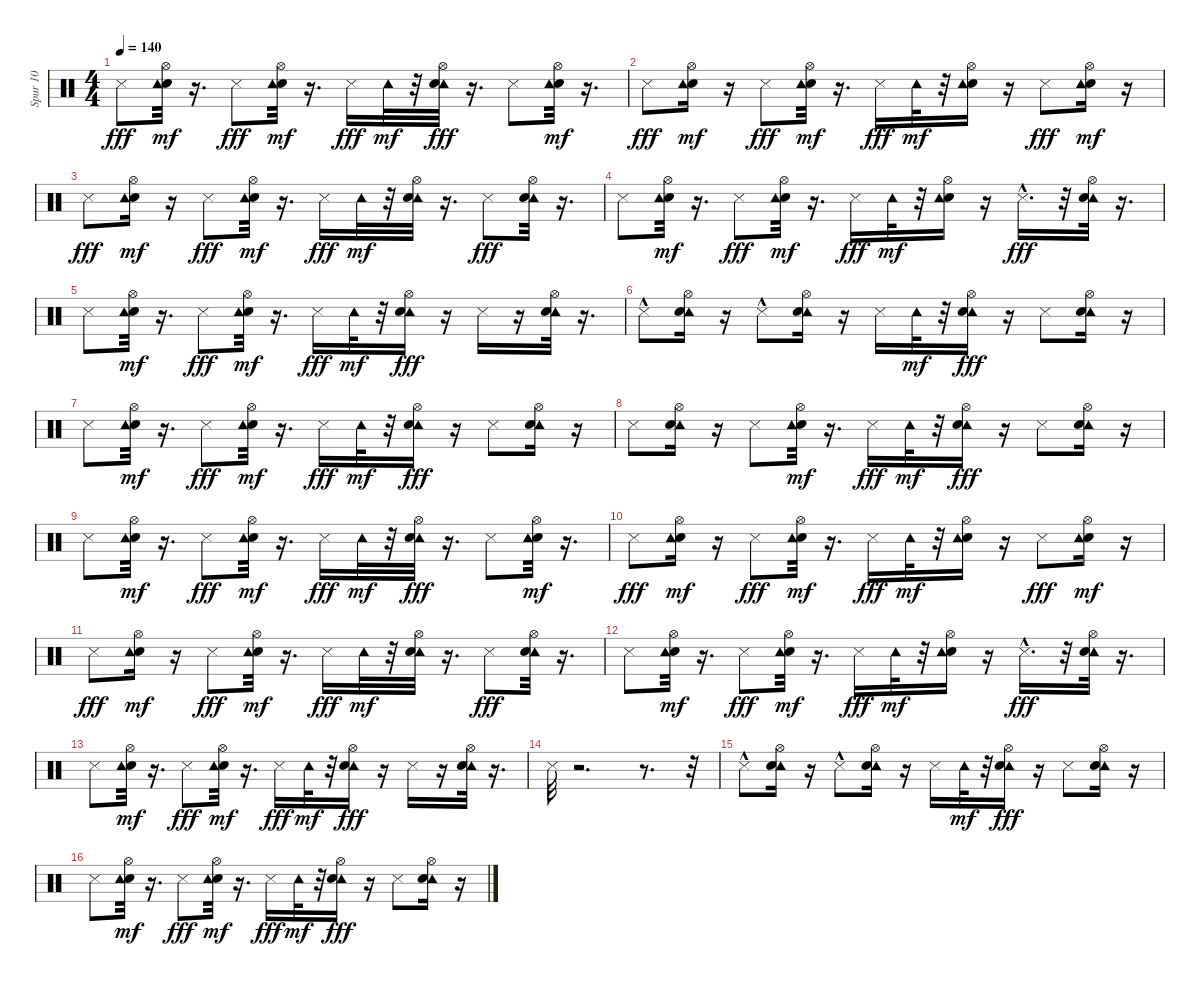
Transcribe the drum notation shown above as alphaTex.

\track ("Spur 10" "Spur 10") {instrument percussion}
\staff {score}
\articulation defaults
\ts (4 4)
\tempo 140
\clef neutral
\ks c "Metronome (hit)".8{dy fff}
("Snare (hit)" "Hi-Hat (open)" "Tambourine (hit)").32{dy mf} r.16{d} "Metronome (hit)".8{dy fff} ("Hi-Hat (open)" "Snare (hit)" "Tambourine (hit)").32{dy mf} r.16{d} "Metronome (hit)".16{dy fff} "Tambourine (hit)".32{dy mf} r.32 ("Tambourine (hit)" "Hi-Hat (open)" "Snare (hit)").32{dy fff} r.16{d} "Metronome (hit)".8 ("Hi-Hat (open)" "Snare (hit)" "Tambourine (hit)").32{dy mf} r.16{d} |
"Metronome (hit)".8{dy fff} ("Hi-Hat (open)" "Snare (hit)" "Tambourine (hit)").16{dy mf} r.16 "Metronome (hit)".8{dy fff} ("Hi-Hat (open)" "Snare (hit)" "Tambourine (hit)").32{dy mf} r.16{d} "Metronome (hit)".16{dy fff} "Tambourine (hit)".32{dy mf} r.32 ("Hi-Hat (open)" "Snare (hit)" "Tambourine (hit)").16 r.16 "Metronome (hit)".8{dy fff} ("Snare (hit)" "Hi-Hat (open)" "Tambourine (hit)").16{dy mf} r.16 |
"Metronome (hit)".8{dy fff} ("Hi-Hat (open)" "Snare (hit)" "Tambourine (hit)").16{dy mf} r.16 "Metronome (hit)".8{dy fff} ("Hi-Hat (open)" "Snare (hit)" "Tambourine (hit)").32{dy mf} r.16{d} "Metronome (hit)".16{dy fff} "Tambourine (hit)".32{dy mf} r.32 ("Tambourine (hit)" "Snare (hit)" "Hi-Hat (open)").32 r.16{d} "Metronome (hit)".8{dy fff} ("Tambourine (hit)" "Hi-Hat (open)" "Snare (hit)").32 r.16{d} |
"Metronome (hit)".8 ("Hi-Hat (open)" "Snare (hit)" "Tambourine (hit)").32{dy mf} r.16{d} "Metronome (hit)".8{dy fff} ("Hi-Hat (open)" "Snare (hit)" "Tambourine (hit)").32{dy mf} r.16{d} "Metronome (hit)".16{dy fff} "Tambourine (hit)".32{dy mf} r.32 ("Hi-Hat (open)" "Snare (hit)" "Tambourine (hit)").16 r.16 "Metronome (hit)"{hac}.16{d dy fff} r.32 ("Tambourine (hit)" "Hi-Hat (open)" "Snare (hit)").32 r.16{d} |
"Metronome (hit)".8 ("Hi-Hat (open)" "Snare (hit)" "Tambourine (hit)").32{dy mf} r.16{d} "Metronome (hit)".8{dy fff} ("Hi-Hat (open)" "Snare (hit)" "Tambourine (hit)").32{dy mf} r.16{d} "Metronome (hit)".16{dy fff} "Tambourine (hit)".32{dy mf} r.32 ("Tambourine (hit)" "Hi-Hat (open)" "Snare (hit)").16{dy fff} r.16 "Metronome (hit)".16 r.16 ("Tambourine (hit)" "Hi-Hat (open)" "Snare (hit)").32 r.16{d} |
"Metronome (hit)"{hac}.8 ("Tambourine (hit)" "Hi-Hat (open)" "Snare (hit)").16 r.16 "Metronome (hit)"{hac}.8 ("Tambourine (hit)" "Hi-Hat (open)" "Snare (hit)").16 r.16 "Metronome (hit)".16 "Tambourine (hit)".32{dy mf} r.32 ("Tambourine (hit)" "Hi-Hat (open)" "Snare (hit)").16{dy fff} r.16 "Metronome (hit)".8 ("Tambourine (hit)" "Hi-Hat (open)" "Snare (hit)").16 r.16 |
"Metronome (hit)".8 ("Hi-Hat (open)" "Snare (hit)" "Tambourine (hit)").32{dy mf} r.16{d} "Metronome (hit)".8{dy fff} ("Hi-Hat (open)" "Snare (hit)" "Tambourine (hit)").32{dy mf} r.16{d} "Metronome (hit)".16{dy fff} "Tambourine (hit)".32{dy mf} r.32 ("Tambourine (hit)" "Hi-Hat (open)" "Snare (hit)").16{dy fff} r.16 "Metronome (hit)".8 ("Tambourine (hit)" "Hi-Hat (open)" "Snare (hit)").16 r.16 |
"Metronome (hit)".8 ("Tambourine (hit)" "Hi-Hat (open)" "Snare (hit)").16 r.16 "Metronome (hit)".8 ("Hi-Hat (open)" "Snare (hit)" "Tambourine (hit)").32{dy mf} r.16{d} "Metronome (hit)".16{dy fff} "Tambourine (hit)".32{dy mf} r.32 ("Tambourine (hit)" "Hi-Hat (open)" "Snare (hit)").16{dy fff} r.16 "Metronome (hit)".8 ("Tambourine (hit)" "Hi-Hat (open)" "Snare (hit)").16 r.16 |
"Metronome (hit)".8 ("Snare (hit)" "Hi-Hat (open)" "Tambourine (hit)").32{dy mf} r.16{d} "Metronome (hit)".8{dy fff} ("Hi-Hat (open)" "Snare (hit)" "Tambourine (hit)").32{dy mf} r.16{d} "Metronome (hit)".16{dy fff} "Tambourine (hit)".32{dy mf} r.32 ("Tambourine (hit)" "Hi-Hat (open)" "Snare (hit)").32{dy fff} r.16{d} "Metronome (hit)".8 ("Hi-Hat (open)" "Snare (hit)" "Tambourine (hit)").32{dy mf} r.16{d} |
"Metronome (hit)".8{dy fff} ("Hi-Hat (open)" "Snare (hit)" "Tambourine (hit)").16{dy mf} r.16 "Metronome (hit)".8{dy fff} ("Hi-Hat (open)" "Snare (hit)" "Tambourine (hit)").32{dy mf} r.16{d} "Metronome (hit)".16{dy fff} "Tambourine (hit)".32{dy mf} r.32 ("Hi-Hat (open)" "Snare (hit)" "Tambourine (hit)").16 r.16 "Metronome (hit)".8{dy fff} ("Snare (hit)" "Hi-Hat (open)" "Tambourine (hit)").16{dy mf} r.16 |
"Metronome (hit)".8{dy fff} ("Hi-Hat (open)" "Snare (hit)" "Tambourine (hit)").16{dy mf} r.16 "Metronome (hit)".8{dy fff} ("Hi-Hat (open)" "Snare (hit)" "Tambourine (hit)").32{dy mf} r.16{d} "Metronome (hit)".16{dy fff} "Tambourine (hit)".32{dy mf} r.32 ("Tambourine (hit)" "Snare (hit)" "Hi-Hat (open)").32 r.16{d} "Metronome (hit)".8{dy fff} ("Tambourine (hit)" "Hi-Hat (open)" "Snare (hit)").32 r.16{d} |
"Metronome (hit)".8 ("Hi-Hat (open)" "Snare (hit)" "Tambourine (hit)").32{dy mf} r.16{d} "Metronome (hit)".8{dy fff} ("Hi-Hat (open)" "Snare (hit)" "Tambourine (hit)").32{dy mf} r.16{d} "Metronome (hit)".16{dy fff} "Tambourine (hit)".32{dy mf} r.32 ("Hi-Hat (open)" "Snare (hit)" "Tambourine (hit)").16 r.16 "Metronome (hit)"{hac}.16{d dy fff} r.32 ("Tambourine (hit)" "Hi-Hat (open)" "Snare (hit)").32 r.16{d} |
"Metronome (hit)".8 ("Hi-Hat (open)" "Snare (hit)" "Tambourine (hit)").32{dy mf} r.16{d} "Metronome (hit)".8{dy fff} ("Hi-Hat (open)" "Snare (hit)" "Tambourine (hit)").32{dy mf} r.16{d} "Metronome (hit)".16{dy fff} "Tambourine (hit)".32{dy mf} r.32 ("Tambourine (hit)" "Hi-Hat (open)" "Snare (hit)").16{dy fff} r.16 "Metronome (hit)".16 r.16 ("Tambourine (hit)" "Hi-Hat (open)" "Snare (hit)").32 r.16{d} |
"Metronome (hit)".32 r.2{d} r.8{d} r.32 |
"Metronome (hit)"{hac}.8 ("Tambourine (hit)" "Hi-Hat (open)" "Snare (hit)").16 r.16 "Metronome (hit)"{hac}.8 ("Tambourine (hit)" "Hi-Hat (open)" "Snare (hit)").16 r.16 "Metronome (hit)".16 "Tambourine (hit)".32{dy mf} r.32 ("Tambourine (hit)" "Hi-Hat (open)" "Snare (hit)").16{dy fff} r.16 "Metronome (hit)".8 ("Tambourine (hit)" "Hi-Hat (open)" "Snare (hit)").16 r.16 |
"Metronome (hit)".8 ("Hi-Hat (open)" "Snare (hit)" "Tambourine (hit)").32{dy mf} r.16{d} "Metronome (hit)".8{dy fff} ("Hi-Hat (open)" "Snare (hit)" "Tambourine (hit)").32{dy mf} r.16{d} "Metronome (hit)".16{dy fff} "Tambourine (hit)".32{dy mf} r.32 ("Tambourine (hit)" "Hi-Hat (open)" "Snare (hit)").16{dy fff} r.16 "Metronome (hit)".8 ("Tambourine (hit)" "Hi-Hat (open)" "Snare (hit)").16 r.16
